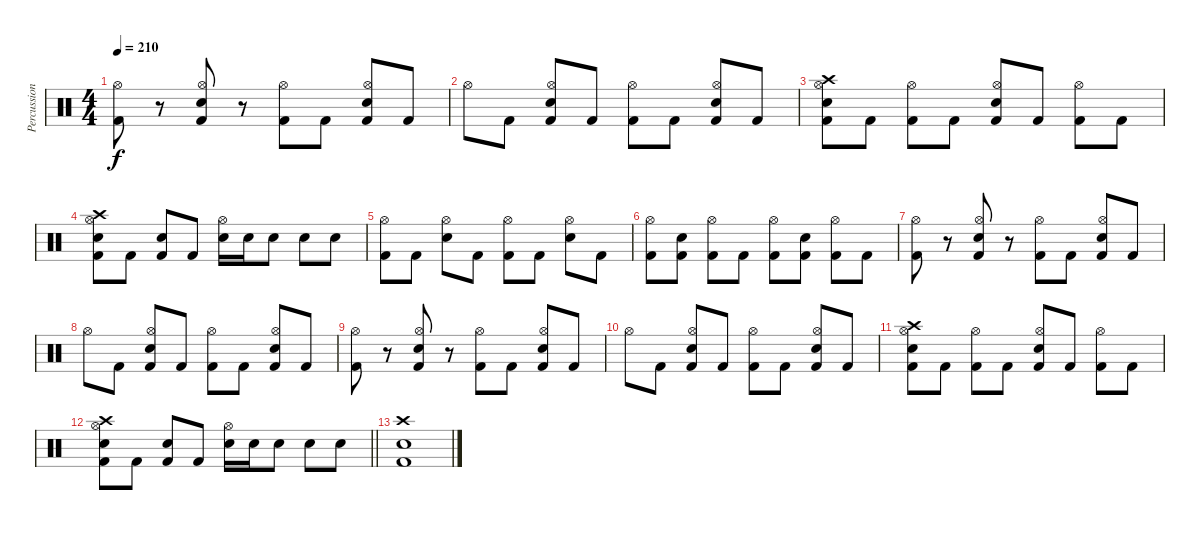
\track ("Percussion" "Percussion") {instrument percussion}
\staff {score}
\articulation defaults
\ts (4 4)
\tempo 210
\clef neutral
\ks c
("Kick (hit) 2" "Hi-Hat (open)").8{dy f} r.8 ("Kick (hit) 2" "Electric Snare (hit)" "Hi-Hat (open)").8 r.8 ("Kick (hit) 2" "Hi-Hat (open)").8 "Kick (hit) 2".8 ("Kick (hit) 2" "Electric Snare (hit)" "Hi-Hat (open)").8 "Kick (hit) 2".8 |
"Hi-Hat (open)".8 "Kick (hit) 2".8 ("Kick (hit) 2" "Electric Snare (hit)" "Hi-Hat (open)").8 "Kick (hit) 2".8 ("Kick (hit) 2" "Hi-Hat (open)").8 "Kick (hit) 2".8 ("Kick (hit) 2" "Electric Snare (hit)" "Hi-Hat (open)").8 "Kick (hit) 2".8 |
("Kick (hit) 2" "Electric Snare (hit)" "Hi-Hat (open)" "Crash high (hit)").8 "Kick (hit) 2".8 ("Kick (hit) 2" "Hi-Hat (open)").8 "Kick (hit) 2".8 ("Kick (hit) 2" "Electric Snare (hit)" "Hi-Hat (open)").8 "Kick (hit) 2".8 ("Kick (hit) 2" "Hi-Hat (open)").8 "Kick (hit) 2".8 |
("Kick (hit) 2" "Electric Snare (hit)" "Hi-Hat (open)" "Crash high (hit)").8 "Kick (hit) 2".8 ("Kick (hit) 2" "Electric Snare (hit)").8 "Kick (hit) 2".8 ("Electric Snare (hit)" "Hi-Hat (open)").16 "Electric Snare (hit)".16 "Electric Snare (hit)".8 "Electric Snare (hit)".8 "Electric Snare (hit)".8 |
("Kick (hit) 2" "Hi-Hat (open)").8 "Kick (hit) 2".8 ("Electric Snare (hit)" "Hi-Hat (open)").8 "Kick (hit) 2".8 ("Kick (hit) 2" "Hi-Hat (open)").8 "Kick (hit) 2".8 ("Electric Snare (hit)" "Hi-Hat (open)").8 "Kick (hit) 2".8 |
("Kick (hit) 2" "Hi-Hat (open)").8 ("Kick (hit) 2" "Electric Snare (hit)").8 ("Kick (hit) 2" "Hi-Hat (open)").8 "Kick (hit) 2".8 ("Kick (hit) 2" "Hi-Hat (open)").8 ("Kick (hit) 2" "Electric Snare (hit)").8 ("Kick (hit) 2" "Hi-Hat (open)").8 "Kick (hit) 2".8 |
("Kick (hit) 2" "Hi-Hat (open)").8 r.8 ("Kick (hit) 2" "Electric Snare (hit)" "Hi-Hat (open)").8 r.8 ("Kick (hit) 2" "Hi-Hat (open)").8 "Kick (hit) 2".8 ("Kick (hit) 2" "Electric Snare (hit)" "Hi-Hat (open)").8 "Kick (hit) 2".8 |
"Hi-Hat (open)".8 "Kick (hit) 2".8 ("Kick (hit) 2" "Electric Snare (hit)" "Hi-Hat (open)").8 "Kick (hit) 2".8 ("Kick (hit) 2" "Hi-Hat (open)").8 "Kick (hit) 2".8 ("Kick (hit) 2" "Electric Snare (hit)" "Hi-Hat (open)").8 "Kick (hit) 2".8 |
("Kick (hit) 2" "Hi-Hat (open)").8 r.8 ("Kick (hit) 2" "Electric Snare (hit)" "Hi-Hat (open)").8 r.8 ("Kick (hit) 2" "Hi-Hat (open)").8 "Kick (hit) 2".8 ("Kick (hit) 2" "Electric Snare (hit)" "Hi-Hat (open)").8 "Kick (hit) 2".8 |
"Hi-Hat (open)".8 "Kick (hit) 2".8 ("Kick (hit) 2" "Electric Snare (hit)" "Hi-Hat (open)").8 "Kick (hit) 2".8 ("Kick (hit) 2" "Hi-Hat (open)").8 "Kick (hit) 2".8 ("Kick (hit) 2" "Electric Snare (hit)" "Hi-Hat (open)").8 "Kick (hit) 2".8 |
("Kick (hit) 2" "Electric Snare (hit)" "Hi-Hat (open)" "Crash high (hit)").8 "Kick (hit) 2".8 ("Kick (hit) 2" "Hi-Hat (open)").8 "Kick (hit) 2".8 ("Kick (hit) 2" "Electric Snare (hit)" "Hi-Hat (open)").8 "Kick (hit) 2".8 ("Kick (hit) 2" "Hi-Hat (open)").8 "Kick (hit) 2".8 |
\barLineRight lightlight
("Kick (hit) 2" "Electric Snare (hit)" "Hi-Hat (open)" "Crash high (hit)").8 "Kick (hit) 2".8 ("Kick (hit) 2" "Electric Snare (hit)").8 "Kick (hit) 2".8 ("Electric Snare (hit)" "Hi-Hat (open)").16 "Electric Snare (hit)".16 "Electric Snare (hit)".8 "Electric Snare (hit)".8 "Electric Snare (hit)".8 |
("Electric Snare (hit)" "Kick (hit) 2" "Crash high (hit)").1
